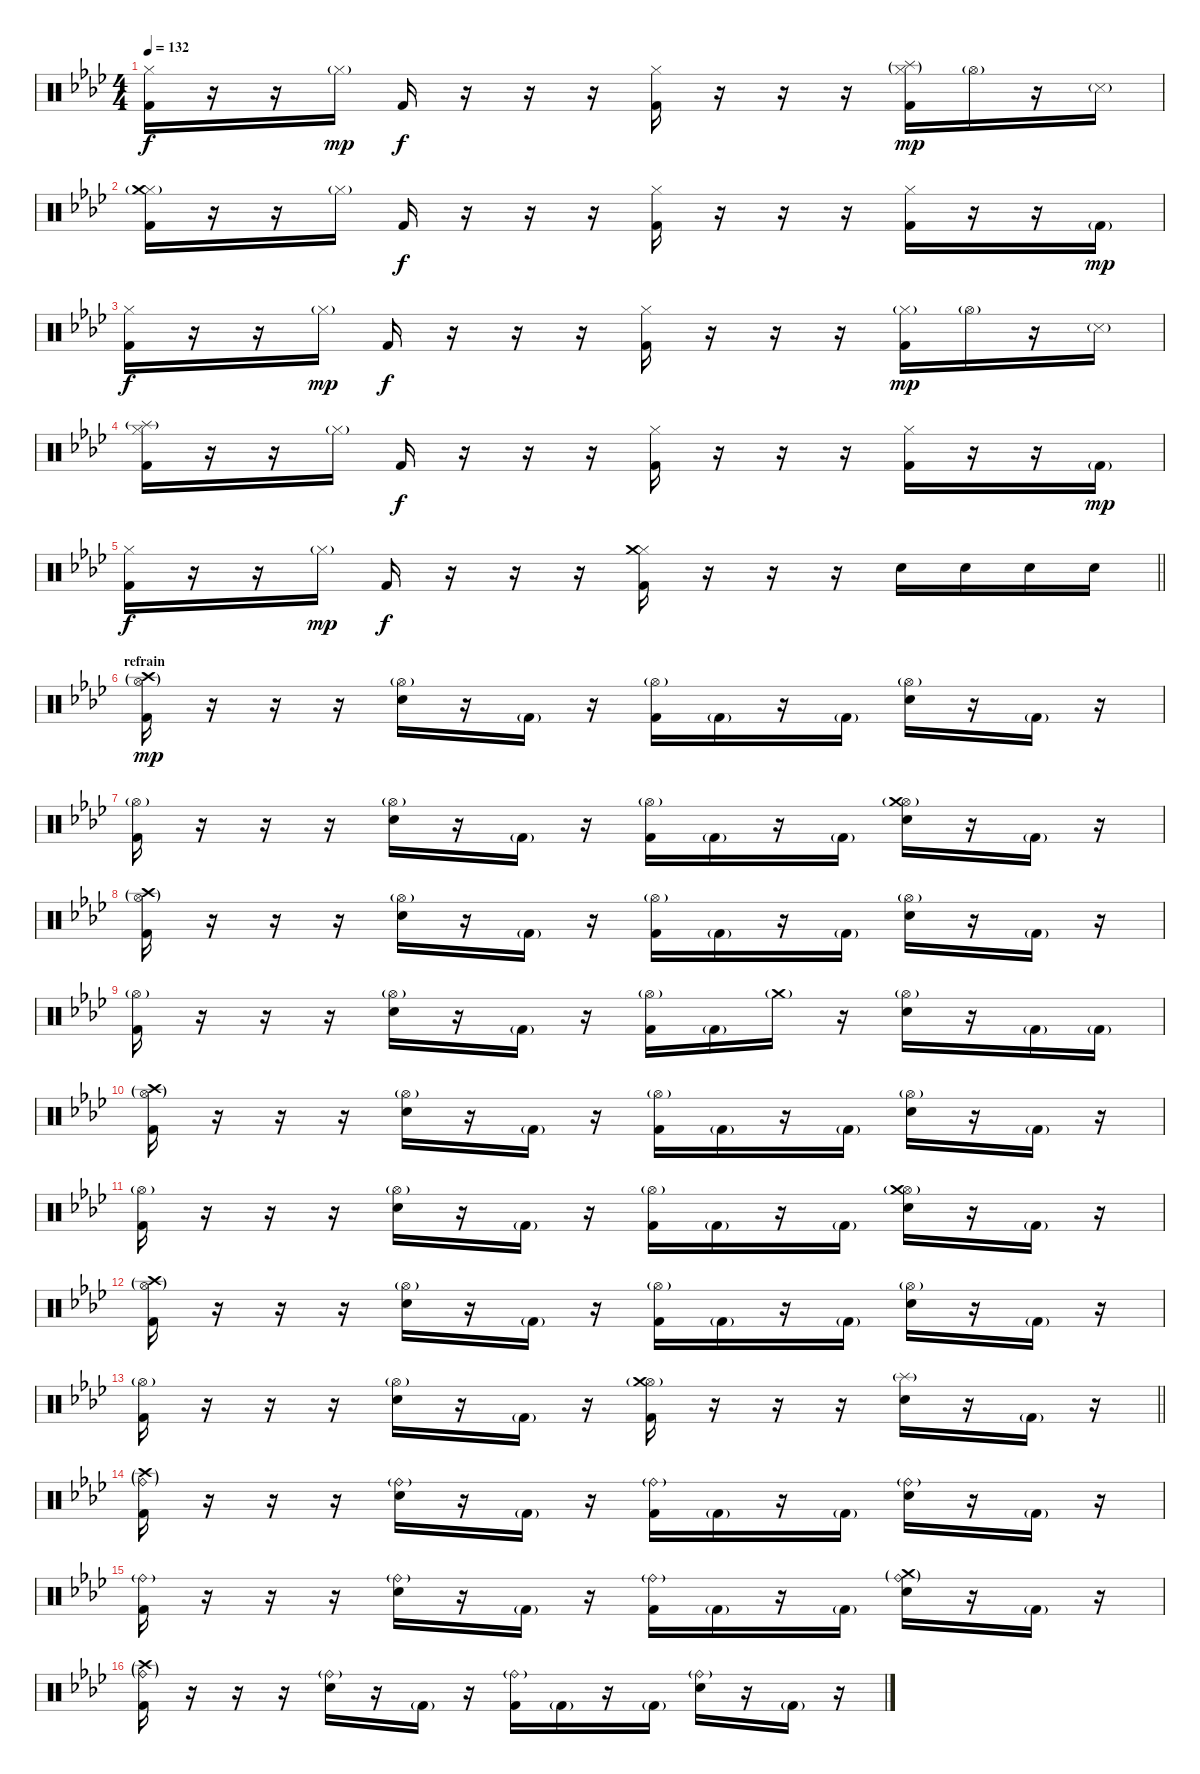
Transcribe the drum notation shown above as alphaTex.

\track "" {instrument percussion}
\staff {score}
\articulation defaults
\ts (4 4)
\tempo 132
\clef neutral
\ks fminor
("Kick (hit) 2" "Hi-Hat (closed)").16{dy f} r.16 r.16 "Hi-Hat (closed)"{g}.16{dy mp} "Kick (hit) 2".16{dy f} r.16 r.16 r.16 ("Kick (hit) 2" "Hi-Hat (closed)").16 r.16 r.16 r.16 ("Kick (hit) 2" "Hi-Hat (closed)"{g} "Splash (hit)"{g}).16{dy mp} "Hi-Hat (open)"{g}.16 r.16 "Snare (side stick) 3"{g}.16 |
("Kick (hit) 2" "Hi-Hat (closed)" "Crash medium (hit)"{g}).16 r.16 r.16 "Hi-Hat (closed)"{g}.16 "Kick (hit) 2".16{dy f} r.16 r.16 r.16 ("Kick (hit) 2" "Hi-Hat (closed)").16 r.16 r.16 r.16 ("Kick (hit) 2" "Hi-Hat (closed)").16 r.16 r.16 "Kick (hit) 2"{g}.16{dy mp} |
("Kick (hit) 2" "Hi-Hat (closed)").16{dy f} r.16 r.16 "Hi-Hat (closed)"{g}.16{dy mp} "Kick (hit) 2".16{dy f} r.16 r.16 r.16 ("Kick (hit) 2" "Hi-Hat (closed)").16 r.16 r.16 r.16 ("Kick (hit) 2" "Hi-Hat (closed)"{g}).16{dy mp} "Hi-Hat (open)"{g}.16 r.16 "Snare (side stick) 3"{g}.16 |
("Kick (hit) 2" "Hi-Hat (closed)" "Splash (hit)"{g}).16 r.16 r.16 "Hi-Hat (closed)"{g}.16 "Kick (hit) 2".16{dy f} r.16 r.16 r.16 ("Kick (hit) 2" "Hi-Hat (closed)").16 r.16 r.16 r.16 ("Kick (hit) 2" "Hi-Hat (closed)").16 r.16 r.16 "Kick (hit) 2"{g}.16{dy mp} |
\barLineRight lightlight
("Kick (hit) 2" "Hi-Hat (closed)").16{dy f} r.16 r.16 "Hi-Hat (closed)"{g}.16{dy mp} "Kick (hit) 2".16{dy f} r.16 r.16 r.16 ("Kick (hit) 2" "Hi-Hat (closed)" "Crash medium (hit)").16 r.16 r.16 r.16 "Electric Snare (hit)".16 "Electric Snare (hit)".16 "Electric Snare (hit)".16 "Electric Snare (hit)".16 |
\section ("" "refrain")
("Kick (hit) 2" "Hi-Hat (open)"{g} "Crash high (hit)"{g}).16{dy mp} r.16 r.16 r.16 ("Electric Snare (hit)" "Hi-Hat (open)"{g}).16 r.16 "Kick (hit) 2"{g}.16 r.16 ("Kick (hit) 2" "Hi-Hat (open)"{g}).16 "Kick (hit) 2"{g}.16 r.16 "Kick (hit) 2"{g}.16 ("Electric Snare (hit)" "Hi-Hat (open)"{g}).16 r.16 "Kick (hit) 2"{g}.16 r.16 |
("Kick (hit) 2" "Hi-Hat (open)"{g}).16 r.16 r.16 r.16 ("Electric Snare (hit)" "Hi-Hat (open)"{g}).16 r.16 "Kick (hit) 2"{g}.16 r.16 ("Kick (hit) 2" "Hi-Hat (open)"{g}).16 "Kick (hit) 2"{g}.16 r.16 "Kick (hit) 2"{g}.16 ("Electric Snare (hit)" "Hi-Hat (open)"{g} "Crash medium (hit)"{g}).16 r.16 "Kick (hit) 2"{g}.16 r.16 |
("Kick (hit) 2" "Hi-Hat (open)"{g} "Crash high (hit)"{g}).16 r.16 r.16 r.16 ("Electric Snare (hit)" "Hi-Hat (open)"{g}).16 r.16 "Kick (hit) 2"{g}.16 r.16 ("Kick (hit) 2" "Hi-Hat (open)"{g}).16 "Kick (hit) 2"{g}.16 r.16 "Kick (hit) 2"{g}.16 ("Electric Snare (hit)" "Hi-Hat (open)"{g}).16 r.16 "Kick (hit) 2"{g}.16 r.16 |
("Kick (hit) 2" "Hi-Hat (open)"{g}).16 r.16 r.16 r.16 ("Electric Snare (hit)" "Hi-Hat (open)"{g}).16 r.16 "Kick (hit) 2"{g}.16 r.16 ("Kick (hit) 2" "Hi-Hat (open)"{g}).16 "Kick (hit) 2"{g}.16 "Crash medium (hit)"{g}.16 r.16 ("Electric Snare (hit)" "Hi-Hat (open)"{g}).16 r.16 "Kick (hit) 2"{g}.16 "Kick (hit) 2"{g}.16 |
("Kick (hit) 2" "Hi-Hat (open)"{g} "Crash high (hit)"{g}).16 r.16 r.16 r.16 ("Electric Snare (hit)" "Hi-Hat (open)"{g}).16 r.16 "Kick (hit) 2"{g}.16 r.16 ("Kick (hit) 2" "Hi-Hat (open)"{g}).16 "Kick (hit) 2"{g}.16 r.16 "Kick (hit) 2"{g}.16 ("Electric Snare (hit)" "Hi-Hat (open)"{g}).16 r.16 "Kick (hit) 2"{g}.16 r.16 |
("Kick (hit) 2" "Hi-Hat (open)"{g}).16 r.16 r.16 r.16 ("Electric Snare (hit)" "Hi-Hat (open)"{g}).16 r.16 "Kick (hit) 2"{g}.16 r.16 ("Kick (hit) 2" "Hi-Hat (open)"{g}).16 "Kick (hit) 2"{g}.16 r.16 "Kick (hit) 2"{g}.16 ("Electric Snare (hit)" "Hi-Hat (open)"{g} "Crash medium (hit)"{g}).16 r.16 "Kick (hit) 2"{g}.16 r.16 |
("Kick (hit) 2" "Hi-Hat (open)"{g} "Crash high (hit)"{g}).16 r.16 r.16 r.16 ("Electric Snare (hit)" "Hi-Hat (open)"{g}).16 r.16 "Kick (hit) 2"{g}.16 r.16 ("Kick (hit) 2" "Hi-Hat (open)"{g}).16 "Kick (hit) 2"{g}.16 r.16 "Kick (hit) 2"{g}.16 ("Electric Snare (hit)" "Hi-Hat (open)"{g}).16 r.16 "Kick (hit) 2"{g}.16 r.16 |
\barLineRight lightlight
("Kick (hit) 2" "Hi-Hat (open)"{g}).16 r.16 r.16 r.16 ("Electric Snare (hit)" "Hi-Hat (open)"{g}).16 r.16 "Kick (hit) 2"{g}.16 r.16 ("Kick (hit) 2" "Hi-Hat (open)"{g} "Crash medium (hit)"{g}).16 r.16 r.16 r.16 ("Electric Snare (hit)" "Splash (hit)"{g}).16 r.16 "Kick (hit) 2"{g}.16 r.16 |
("Kick (hit) 2" "Ride (bell)"{g} "Crash high (hit)"{g}).16 r.16 r.16 r.16 ("Electric Snare (hit)" "Ride (bell)"{g}).16 r.16 "Kick (hit) 2"{g}.16 r.16 ("Kick (hit) 2" "Ride (bell)"{g}).16 "Kick (hit) 2"{g}.16 r.16 "Kick (hit) 2"{g}.16 ("Electric Snare (hit)" "Ride (bell)"{g}).16 r.16 "Kick (hit) 2"{g}.16 r.16 |
("Kick (hit) 2" "Ride (bell)"{g}).16 r.16 r.16 r.16 ("Electric Snare (hit)" "Ride (bell)"{g}).16 r.16 "Kick (hit) 2"{g}.16 r.16 ("Kick (hit) 2" "Ride (bell)"{g}).16 "Kick (hit) 2"{g}.16 r.16 "Kick (hit) 2"{g}.16 ("Electric Snare (hit)" "Ride (bell)"{g} "Crash medium (hit)"{g}).16 r.16 "Kick (hit) 2"{g}.16 r.16 |
("Kick (hit) 2" "Ride (bell)"{g} "Crash high (hit)"{g}).16 r.16 r.16 r.16 ("Electric Snare (hit)" "Ride (bell)"{g}).16 r.16 "Kick (hit) 2"{g}.16 r.16 ("Kick (hit) 2" "Ride (bell)"{g}).16 "Kick (hit) 2"{g}.16 r.16 "Kick (hit) 2"{g}.16 ("Electric Snare (hit)" "Ride (bell)"{g}).16 r.16 "Kick (hit) 2"{g}.16 r.16
